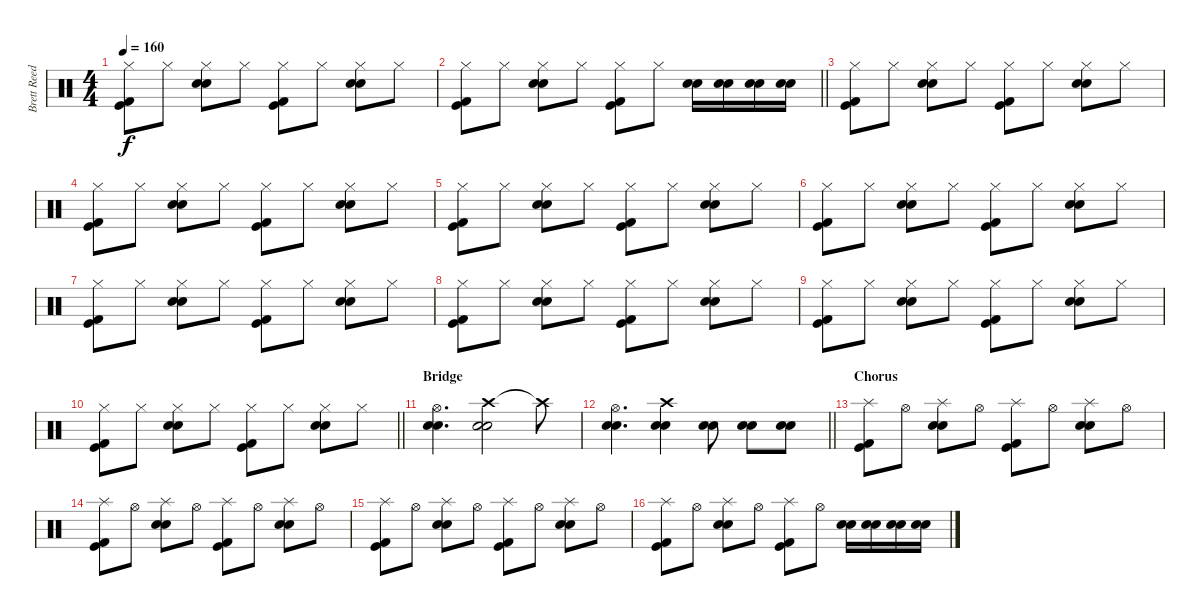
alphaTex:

\track ("Brett Reed" "Brett Reed") {instrument percussion}
\staff {score}
\articulation defaults
\ts (4 4)
\tempo 160
\clef neutral
\ks c
("Hi-Hat (closed)" "Kick (hit) 2" "Kick (hit)").8{dy f} "Hi-Hat (closed)".8 ("Hi-Hat (closed)" "Electric Snare (hit)" "Snare (hit) 2").8 "Hi-Hat (closed)".8 ("Hi-Hat (closed)" "Kick (hit) 2" "Kick (hit)").8 "Hi-Hat (closed)".8 ("Hi-Hat (closed)" "Electric Snare (hit)" "Snare (hit) 2").8 "Hi-Hat (closed)".8 |
\barLineRight lightlight
("Hi-Hat (closed)" "Kick (hit) 2" "Kick (hit)").8 "Hi-Hat (closed)".8 ("Hi-Hat (closed)" "Electric Snare (hit)" "Snare (hit) 2").8 "Hi-Hat (closed)".8 ("Hi-Hat (closed)" "Kick (hit) 2" "Kick (hit)").8 "Hi-Hat (closed)".8 ("Electric Snare (hit)" "Snare (hit) 2").16 ("Electric Snare (hit)" "Snare (hit) 2").16 ("Electric Snare (hit)" "Snare (hit) 2").16 ("Electric Snare (hit)" "Snare (hit) 2").16 |
("Hi-Hat (closed)" "Kick (hit) 2" "Kick (hit)").8 "Hi-Hat (closed)".8 ("Hi-Hat (closed)" "Electric Snare (hit)" "Snare (hit) 2").8 "Hi-Hat (closed)".8 ("Hi-Hat (closed)" "Kick (hit) 2" "Kick (hit)").8 "Hi-Hat (closed)".8 ("Hi-Hat (closed)" "Electric Snare (hit)" "Snare (hit) 2").8 "Hi-Hat (closed)".8 |
("Hi-Hat (closed)" "Kick (hit) 2" "Kick (hit)").8 "Hi-Hat (closed)".8 ("Hi-Hat (closed)" "Electric Snare (hit)" "Snare (hit) 2").8 "Hi-Hat (closed)".8 ("Hi-Hat (closed)" "Kick (hit) 2" "Kick (hit)").8 "Hi-Hat (closed)".8 ("Hi-Hat (closed)" "Electric Snare (hit)" "Snare (hit) 2").8 "Hi-Hat (closed)".8 |
("Hi-Hat (closed)" "Kick (hit) 2" "Kick (hit)").8 "Hi-Hat (closed)".8 ("Hi-Hat (closed)" "Electric Snare (hit)" "Snare (hit) 2").8 "Hi-Hat (closed)".8 ("Hi-Hat (closed)" "Kick (hit) 2" "Kick (hit)").8 "Hi-Hat (closed)".8 ("Hi-Hat (closed)" "Electric Snare (hit)" "Snare (hit) 2").8 "Hi-Hat (closed)".8 |
("Hi-Hat (closed)" "Kick (hit) 2" "Kick (hit)").8 "Hi-Hat (closed)".8 ("Hi-Hat (closed)" "Electric Snare (hit)" "Snare (hit) 2").8 "Hi-Hat (closed)".8 ("Hi-Hat (closed)" "Kick (hit) 2" "Kick (hit)").8 "Hi-Hat (closed)".8 ("Hi-Hat (closed)" "Electric Snare (hit)" "Snare (hit) 2").8 "Hi-Hat (closed)".8 |
("Hi-Hat (closed)" "Kick (hit) 2" "Kick (hit)").8 "Hi-Hat (closed)".8 ("Hi-Hat (closed)" "Electric Snare (hit)" "Snare (hit) 2").8 "Hi-Hat (closed)".8 ("Hi-Hat (closed)" "Kick (hit) 2" "Kick (hit)").8 "Hi-Hat (closed)".8 ("Hi-Hat (closed)" "Electric Snare (hit)" "Snare (hit) 2").8 "Hi-Hat (closed)".8 |
("Hi-Hat (closed)" "Kick (hit) 2" "Kick (hit)").8 "Hi-Hat (closed)".8 ("Hi-Hat (closed)" "Electric Snare (hit)" "Snare (hit) 2").8 "Hi-Hat (closed)".8 ("Hi-Hat (closed)" "Kick (hit) 2" "Kick (hit)").8 "Hi-Hat (closed)".8 ("Hi-Hat (closed)" "Electric Snare (hit)" "Snare (hit) 2").8 "Hi-Hat (closed)".8 |
("Hi-Hat (closed)" "Kick (hit) 2" "Kick (hit)").8 "Hi-Hat (closed)".8 ("Hi-Hat (closed)" "Electric Snare (hit)" "Snare (hit) 2").8 "Hi-Hat (closed)".8 ("Hi-Hat (closed)" "Kick (hit) 2" "Kick (hit)").8 "Hi-Hat (closed)".8 ("Hi-Hat (closed)" "Electric Snare (hit)" "Snare (hit) 2").8 "Hi-Hat (closed)".8 |
\barLineRight lightlight
("Hi-Hat (closed)" "Kick (hit) 2" "Kick (hit)").8 "Hi-Hat (closed)".8 ("Hi-Hat (closed)" "Electric Snare (hit)" "Snare (hit) 2").8 "Hi-Hat (closed)".8 ("Hi-Hat (closed)" "Kick (hit) 2" "Kick (hit)").8 "Hi-Hat (closed)".8 ("Hi-Hat (closed)" "Electric Snare (hit)" "Snare (hit) 2").8 "Hi-Hat (closed)".8 |
\section ("" "Bridge")
("Hi-Hat (open)" "Electric Snare (hit)" "Snare (hit) 2").4{d} ("Crash high (hit)" "Electric Snare (hit)" "Snare (hit) 2").2 "Crash high (hit)"{t}.8 |
\barLineRight lightlight
("Hi-Hat (open)" "Electric Snare (hit)" "Snare (hit) 2").4{d} ("Crash high (hit)" "Electric Snare (hit)" "Snare (hit) 2").4 ("Electric Snare (hit)" "Snare (hit) 2").8 ("Electric Snare (hit)" "Snare (hit) 2").8 ("Electric Snare (hit)" "Snare (hit) 2").8 |
\section ("" "Chorus")
("Splash (hit)" "Kick (hit) 2" "Kick (hit)").8 "Hi-Hat (open)".8 ("Splash (hit)" "Electric Snare (hit)" "Snare (hit) 2").8 "Hi-Hat (open)".8 ("Splash (hit)" "Kick (hit) 2" "Kick (hit)").8 "Hi-Hat (open)".8 ("Splash (hit)" "Electric Snare (hit)" "Snare (hit) 2").8 "Hi-Hat (open)".8 |
("Splash (hit)" "Kick (hit) 2" "Kick (hit)").8 "Hi-Hat (open)".8 ("Splash (hit)" "Electric Snare (hit)" "Snare (hit) 2").8 "Hi-Hat (open)".8 ("Splash (hit)" "Kick (hit) 2" "Kick (hit)").8 "Hi-Hat (open)".8 ("Splash (hit)" "Electric Snare (hit)" "Snare (hit) 2").8 "Hi-Hat (open)".8 |
("Splash (hit)" "Kick (hit) 2" "Kick (hit)").8 "Hi-Hat (open)".8 ("Splash (hit)" "Electric Snare (hit)" "Snare (hit) 2").8 "Hi-Hat (open)".8 ("Splash (hit)" "Kick (hit) 2" "Kick (hit)").8 "Hi-Hat (open)".8 ("Splash (hit)" "Electric Snare (hit)" "Snare (hit) 2").8 "Hi-Hat (open)".8 |
("Splash (hit)" "Kick (hit) 2" "Kick (hit)").8 "Hi-Hat (open)".8 ("Splash (hit)" "Electric Snare (hit)" "Snare (hit) 2").8 "Hi-Hat (open)".8 ("Splash (hit)" "Kick (hit) 2" "Kick (hit)").8 "Hi-Hat (open)".8 ("Electric Snare (hit)" "Snare (hit) 2").16 ("Electric Snare (hit)" "Snare (hit) 2").16 ("Electric Snare (hit)" "Snare (hit) 2").16 ("Electric Snare (hit)" "Snare (hit) 2").16
